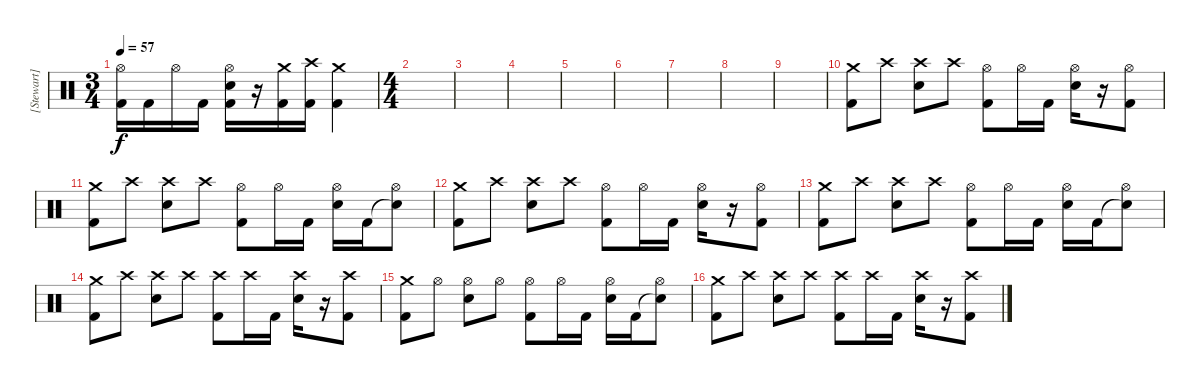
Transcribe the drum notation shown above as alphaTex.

\track ("[Stewart]" "[Stewart]") {instrument percussion}
\staff {score}
\articulation defaults
\ts (3 4)
\tempo 57
\clef neutral
\ks c
("Kick (hit) 2" "Hi-Hat (open)").16{dy f} "Kick (hit) 2".16 "Hi-Hat (open)".16 "Kick (hit) 2".16 ("Kick (hit) 2" "Electric Snare (hit)" "Hi-Hat (open)").16 r.16 ("Kick (hit) 2" "Crash medium (hit)").16 ("Kick (hit) 2" "Crash high (hit)").16 ("Kick (hit) 2" "Crash medium (hit)").4 |
\ts (4 4)
|
|
|
|
|
|
|
|
("Kick (hit) 2" "Crash medium (hit)").8 "Crash high (hit)".8 ("Electric Snare (hit)" "Crash high (hit)").8 "Crash high (hit)".8 ("Kick (hit) 2" "Hi-Hat (open)").8 "Hi-Hat (open)".16 "Kick (hit) 2".16 ("Electric Snare (hit)" "Hi-Hat (open)").16 r.16 ("Kick (hit) 2" "Hi-Hat (open)").8 |
("Kick (hit) 2" "Crash medium (hit)").8 "Crash high (hit)".8 ("Electric Snare (hit)" "Crash high (hit)").8 "Crash high (hit)".8 ("Kick (hit) 2" "Hi-Hat (open)").8 "Hi-Hat (open)".16 "Kick (hit) 2".16 ("Electric Snare (hit)" "Hi-Hat (open)").16 "Kick (hit) 2".16 ("Snare (hit)"{t} "Hi-Hat (open)").8 |
("Kick (hit) 2" "Crash medium (hit)").8 "Crash high (hit)".8 ("Electric Snare (hit)" "Crash high (hit)").8 "Crash high (hit)".8 ("Kick (hit) 2" "Hi-Hat (open)").8 "Hi-Hat (open)".16 "Kick (hit) 2".16 ("Electric Snare (hit)" "Hi-Hat (open)").16 r.16 ("Kick (hit) 2" "Hi-Hat (open)").8 |
("Kick (hit) 2" "Crash medium (hit)").8 "Crash high (hit)".8 ("Electric Snare (hit)" "Crash high (hit)").8 "Crash high (hit)".8 ("Kick (hit) 2" "Hi-Hat (open)").8 "Hi-Hat (open)".16 "Kick (hit) 2".16 ("Electric Snare (hit)" "Hi-Hat (open)").16 "Kick (hit) 2".16 ("Snare (hit)"{t} "Hi-Hat (open)").8 |
("Kick (hit) 2" "Crash medium (hit)").8 "Crash high (hit)".8 ("Electric Snare (hit)" "Crash high (hit)").8 "Crash high (hit)".8 ("Kick (hit) 2" "Crash high (hit)").8 "Crash high (hit)".16 "Kick (hit) 2".16 ("Electric Snare (hit)" "Crash high (hit)").16 r.16 ("Kick (hit) 2" "Crash high (hit)").8 |
("Kick (hit) 2" "Crash medium (hit)").8 "Hi-Hat (open)".8 ("Electric Snare (hit)" "Hi-Hat (open)").8 "Hi-Hat (open)".8 ("Kick (hit) 2" "Hi-Hat (open)").8 "Hi-Hat (open)".16 "Kick (hit) 2".16 ("Electric Snare (hit)" "Hi-Hat (open)").16 "Kick (hit) 2".16 ("Snare (hit)"{t} "Hi-Hat (open)").8 |
("Kick (hit) 2" "Crash medium (hit)").8 "Crash high (hit)".8 ("Electric Snare (hit)" "Crash high (hit)").8 "Crash high (hit)".8 ("Kick (hit) 2" "Crash high (hit)").8 "Crash high (hit)".16 "Kick (hit) 2".16 ("Electric Snare (hit)" "Crash high (hit)").16 r.16 ("Kick (hit) 2" "Crash high (hit)").8
